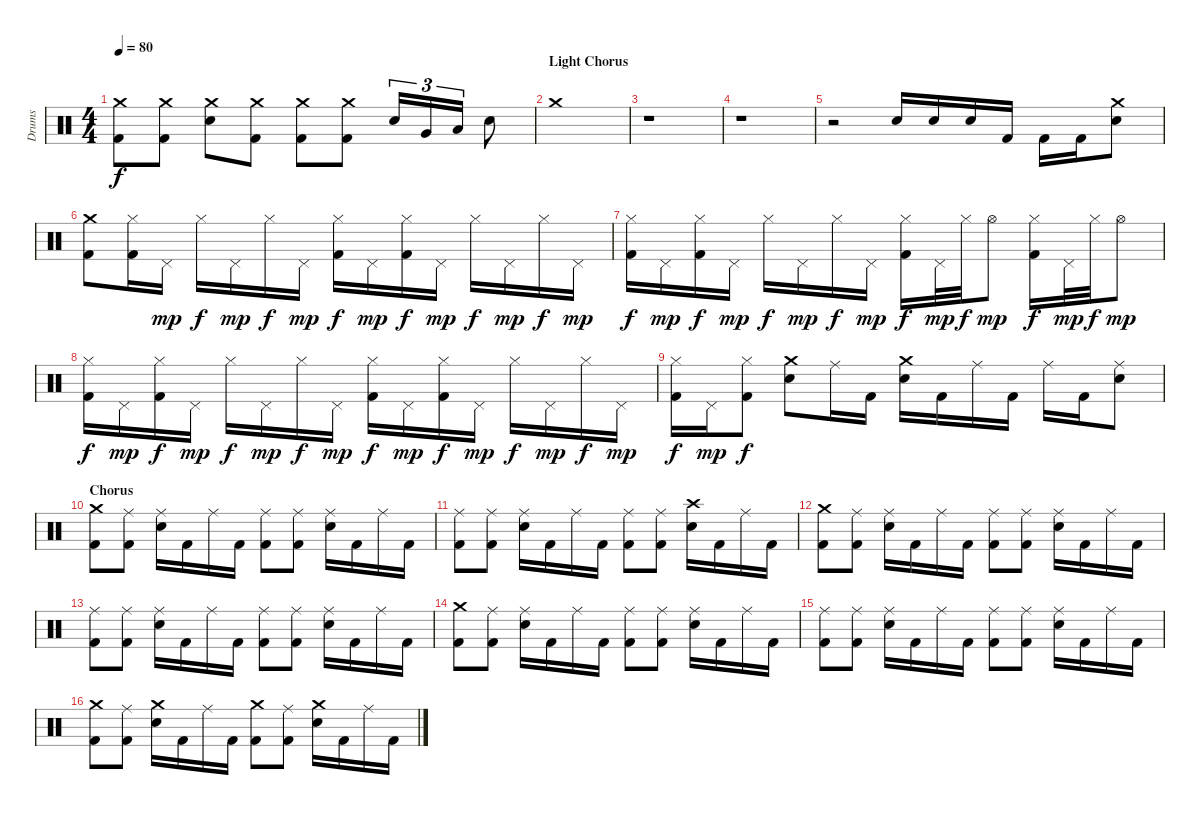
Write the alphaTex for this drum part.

\track ("Drums" "Drums") {instrument percussion}
\staff {score}
\articulation defaults
\ts (4 4)
\tempo 80
\clef neutral
\ks c
("Crash medium (hit)" "Kick (hit) 2").8{dy f} ("Crash medium (hit)" "Kick (hit) 2").8 ("Crash medium (hit)" "Electric Snare (hit)").8 ("Crash medium (hit)" "Kick (hit) 2").8 ("Crash medium (hit)" "Kick (hit) 2").8 ("Crash medium (hit)" "Kick (hit) 2").8 "Electric Snare (hit)".16{tu (3 2)} "Very Low Tom (hit)".16{tu (3 2)} "Low Floor Tom (hit)".16{tu (3 2)} "Electric Snare (hit)".8 |
\section ("" "Light Chorus")
"Crash medium (hit)".1 |
r.1 |
r.1 |
r.2 "Electric Snare (hit)".16 "Electric Snare (hit)".16 "Electric Snare (hit)".16 "Kick (hit) 2".16 "Kick (hit) 2".16 "Kick (hit) 2".16 ("Crash medium (hit)" "Electric Snare (hit)").8 |
("Crash medium (hit)" "Kick (hit) 2").8 ("Hi-Hat (closed)" "Kick (hit) 2").16 "Pedal Hi-Hat (hit)".16{dy mp} "Hi-Hat (closed)".16{dy f} "Pedal Hi-Hat (hit)".16{dy mp} "Hi-Hat (closed)".16{dy f} "Pedal Hi-Hat (hit)".16{dy mp} ("Hi-Hat (closed)" "Kick (hit) 2").16{dy f} "Pedal Hi-Hat (hit)".16{dy mp} ("Hi-Hat (closed)" "Kick (hit) 2").16{dy f} "Pedal Hi-Hat (hit)".16{dy mp} "Hi-Hat (closed)".16{dy f} "Pedal Hi-Hat (hit)".16{dy mp} "Hi-Hat (closed)".16{dy f} "Pedal Hi-Hat (hit)".16{dy mp} |
("Hi-Hat (closed)" "Kick (hit) 2").16{dy f} "Pedal Hi-Hat (hit)".16{dy mp} ("Hi-Hat (closed)" "Kick (hit) 2").16{dy f} "Pedal Hi-Hat (hit)".16{dy mp} "Hi-Hat (closed)".16{dy f} "Pedal Hi-Hat (hit)".16{dy mp} "Hi-Hat (closed)".16{dy f} "Pedal Hi-Hat (hit)".16{dy mp} ("Hi-Hat (closed)" "Kick (hit) 2").16{dy f} "Pedal Hi-Hat (hit)".32{dy mp} "Hi-Hat (closed)".32{dy f} "Hi-Hat (open)".8{dy mp} ("Hi-Hat (closed)" "Kick (hit) 2").16{dy f} "Pedal Hi-Hat (hit)".32{dy mp} "Hi-Hat (closed)".32{dy f} "Hi-Hat (open)".8{dy mp} |
("Hi-Hat (closed)" "Kick (hit) 2").16{dy f} "Pedal Hi-Hat (hit)".16{dy mp} ("Hi-Hat (closed)" "Kick (hit) 2").16{dy f} "Pedal Hi-Hat (hit)".16{dy mp} "Hi-Hat (closed)".16{dy f} "Pedal Hi-Hat (hit)".16{dy mp} "Hi-Hat (closed)".16{dy f} "Pedal Hi-Hat (hit)".16{dy mp} ("Hi-Hat (closed)" "Kick (hit) 2").16{dy f} "Pedal Hi-Hat (hit)".16{dy mp} ("Hi-Hat (closed)" "Kick (hit) 2").16{dy f} "Pedal Hi-Hat (hit)".16{dy mp} "Hi-Hat (closed)".16{dy f} "Pedal Hi-Hat (hit)".16{dy mp} "Hi-Hat (closed)".16{dy f} "Pedal Hi-Hat (hit)".16{dy mp} |
("Hi-Hat (closed)" "Kick (hit) 2").16{dy f} "Pedal Hi-Hat (hit)".16{dy mp} ("Hi-Hat (closed)" "Kick (hit) 2").8{dy f} ("Crash medium (hit)" "Electric Snare (hit)").8 "Ride (middle)".16 "Kick (hit) 2".16 ("Crash medium (hit)" "Electric Snare (hit)").16 "Kick (hit) 2".16 "Ride (middle)".16 "Kick (hit) 2".16 "Ride (middle)".16 "Kick (hit) 2".16 ("Ride (middle)" "Electric Snare (hit)").8 |
\section ("" "Chorus")
("Crash medium (hit)" "Kick (hit) 2").8 ("Ride (middle)" "Kick (hit) 2").8 ("Ride (middle)" "Electric Snare (hit)").16 "Kick (hit) 2".16 "Ride (middle)".16 "Kick (hit) 2".16 ("Ride (middle)" "Kick (hit) 2").8 ("Ride (middle)" "Kick (hit) 2").8 ("Ride (middle)" "Electric Snare (hit)").16 "Kick (hit) 2".16 "Ride (middle)".16 "Kick (hit) 2".16 |
("Ride (middle)" "Kick (hit) 2").8 ("Ride (middle)" "Kick (hit) 2").8 ("Ride (middle)" "Electric Snare (hit)").16 "Kick (hit) 2".16 "Ride (middle)".16 "Kick (hit) 2".16 ("Ride (middle)" "Kick (hit) 2").8 ("Ride (middle)" "Kick (hit) 2").8 ("Crash high (hit)" "Electric Snare (hit)").16 "Kick (hit) 2".16 "Ride (middle)".16 "Kick (hit) 2".16 |
("Crash medium (hit)" "Kick (hit) 2").8 ("Ride (middle)" "Kick (hit) 2").8 ("Ride (middle)" "Electric Snare (hit)").16 "Kick (hit) 2".16 "Ride (middle)".16 "Kick (hit) 2".16 ("Ride (middle)" "Kick (hit) 2").8 ("Ride (middle)" "Kick (hit) 2").8 ("Ride (middle)" "Electric Snare (hit)").16 "Kick (hit) 2".16 "Ride (middle)".16 "Kick (hit) 2".16 |
("Ride (middle)" "Kick (hit) 2").8 ("Ride (middle)" "Kick (hit) 2").8 ("Ride (middle)" "Electric Snare (hit)").16 "Kick (hit) 2".16 "Ride (middle)".16 "Kick (hit) 2".16 ("Ride (middle)" "Kick (hit) 2").8 ("Ride (middle)" "Kick (hit) 2").8 ("Ride (middle)" "Electric Snare (hit)").16 "Kick (hit) 2".16 "Ride (middle)".16 "Kick (hit) 2".16 |
("Crash medium (hit)" "Kick (hit) 2").8 ("Ride (middle)" "Kick (hit) 2").8 ("Ride (middle)" "Electric Snare (hit)").16 "Kick (hit) 2".16 "Ride (middle)".16 "Kick (hit) 2".16 ("Ride (middle)" "Kick (hit) 2").8 ("Ride (middle)" "Kick (hit) 2").8 ("Ride (middle)" "Electric Snare (hit)").16 "Kick (hit) 2".16 "Ride (middle)".16 "Kick (hit) 2".16 |
("Ride (middle)" "Kick (hit) 2").8 ("Ride (middle)" "Kick (hit) 2").8 ("Ride (middle)" "Electric Snare (hit)").16 "Kick (hit) 2".16 "Ride (middle)".16 "Kick (hit) 2".16 ("Ride (middle)" "Kick (hit) 2").8 ("Ride (middle)" "Kick (hit) 2").8 ("Ride (middle)" "Electric Snare (hit)").16 "Kick (hit) 2".16 "Ride (middle)".16 "Kick (hit) 2".16 |
("Crash medium (hit)" "Kick (hit) 2").8 ("Ride (middle)" "Kick (hit) 2").8 ("Crash medium (hit)" "Electric Snare (hit)").16 "Kick (hit) 2".16 "Ride (middle)".16 "Kick (hit) 2".16 ("Crash medium (hit)" "Kick (hit) 2").8 ("Ride (middle)" "Kick (hit) 2").8 ("Crash medium (hit)" "Electric Snare (hit)").16 "Kick (hit) 2".16 "Ride (middle)".16 "Kick (hit) 2".16
